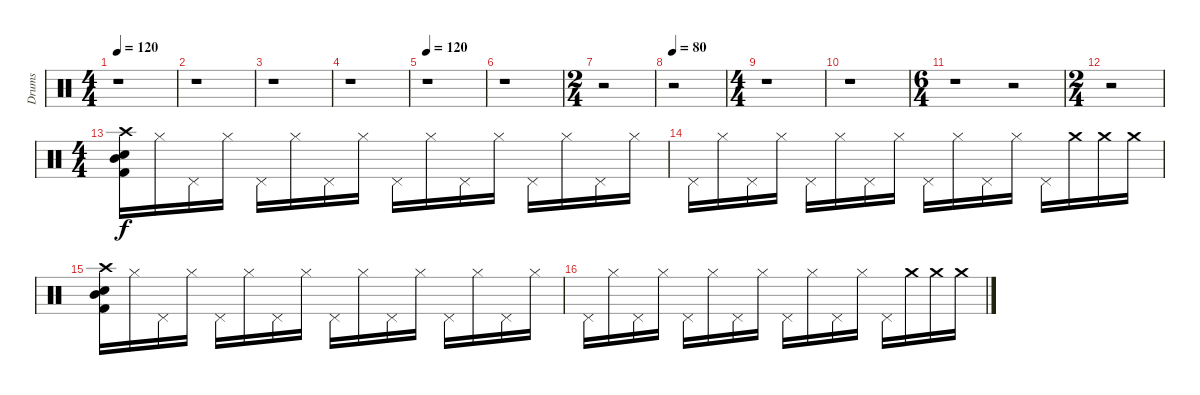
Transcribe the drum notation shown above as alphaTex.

\track ("Drums" "Drums") {instrument percussion}
\staff {score}
\articulation defaults
\ts (4 4)
\tempo 120
\tempo 100
\tempo 120
\clef neutral
\ks c
r.1{dy f} |
r.1 |
r.1 |
r.1 |
\tempo 120
r.1 |
r.1 |
\ts (2 4)
r.2 |
\tempo 80
r.2 |
\ts (4 4)
r.1 |
r.1 |
\ts (6 4)
r.1 r.2 |
\ts (2 4)
r.2 |
\ts (4 4)
("Snare (hit) 2" "Kick (hit) 2" "Crash high (hit)" "Mid Tom (hit)").16 "Hi-Hat (closed)".16 "Pedal Hi-Hat (hit)".16 "Hi-Hat (closed)".16 "Pedal Hi-Hat (hit)".16 "Hi-Hat (closed)".16 "Pedal Hi-Hat (hit)".16 "Hi-Hat (closed)".16 "Pedal Hi-Hat (hit)".16 "Hi-Hat (closed)".16 "Pedal Hi-Hat (hit)".16 "Hi-Hat (closed)".16 "Pedal Hi-Hat (hit)".16 "Hi-Hat (closed)".16 "Pedal Hi-Hat (hit)".16 "Hi-Hat (closed)".16 |
"Pedal Hi-Hat (hit)".16 "Hi-Hat (closed)".16 "Pedal Hi-Hat (hit)".16 "Hi-Hat (closed)".16 "Pedal Hi-Hat (hit)".16 "Hi-Hat (closed)".16 "Pedal Hi-Hat (hit)".16 "Hi-Hat (closed)".16 "Pedal Hi-Hat (hit)".16 "Hi-Hat (closed)".16 "Pedal Hi-Hat (hit)".16 "Hi-Hat (closed)".16 "Pedal Hi-Hat (hit)".16 "Crash medium (hit)".16 "Crash medium (hit)".16 "Crash medium (hit)".16 |
("Snare (hit) 2" "Kick (hit) 2" "Crash high (hit)" "Mid Tom (hit)").16 "Hi-Hat (closed)".16 "Pedal Hi-Hat (hit)".16 "Hi-Hat (closed)".16 "Pedal Hi-Hat (hit)".16 "Hi-Hat (closed)".16 "Pedal Hi-Hat (hit)".16 "Hi-Hat (closed)".16 "Pedal Hi-Hat (hit)".16 "Hi-Hat (closed)".16 "Pedal Hi-Hat (hit)".16 "Hi-Hat (closed)".16 "Pedal Hi-Hat (hit)".16 "Hi-Hat (closed)".16 "Pedal Hi-Hat (hit)".16 "Hi-Hat (closed)".16 |
"Pedal Hi-Hat (hit)".16 "Hi-Hat (closed)".16 "Pedal Hi-Hat (hit)".16 "Hi-Hat (closed)".16 "Pedal Hi-Hat (hit)".16 "Hi-Hat (closed)".16 "Pedal Hi-Hat (hit)".16 "Hi-Hat (closed)".16 "Pedal Hi-Hat (hit)".16 "Hi-Hat (closed)".16 "Pedal Hi-Hat (hit)".16 "Hi-Hat (closed)".16 "Pedal Hi-Hat (hit)".16 "Crash medium (hit)".16 "Crash medium (hit)".16 "Crash medium (hit)".16
